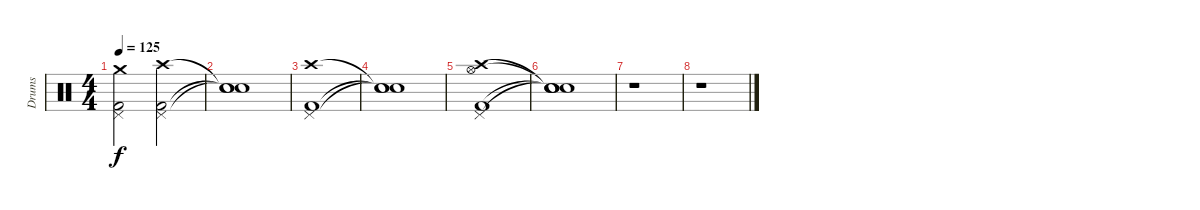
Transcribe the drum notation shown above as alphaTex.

\track ("Drums" "Drums") {instrument percussion}
\staff {score}
\articulation defaults
\ts (4 4)
\tempo 125
\clef neutral
\ks c
("Kick (hit) 2" "Pedal Hi-Hat (hit)" "Crash medium (hit)").2{dy f} ("Kick (hit) 2" "Pedal Hi-Hat (hit)" "Crash high (hit)").2 |
("Snare (hit)"{t} "Snare (hit)"{t} "Snare (hit)"{t}).1 |
("Kick (hit) 2" "Pedal Hi-Hat (hit)" "Crash high (hit)").1 |
("Snare (hit)"{t} "Snare (hit)"{t} "Snare (hit)"{t}).1 |
("Kick (hit) 2" "Pedal Hi-Hat (hit)" "Hi-Hat (open)" "Crash high (hit)").1 |
("Snare (hit)"{t} "Snare (hit)"{t} "Snare (hit)"{t} "Snare (hit)"{t}).1 |
r.1 |
r.1
